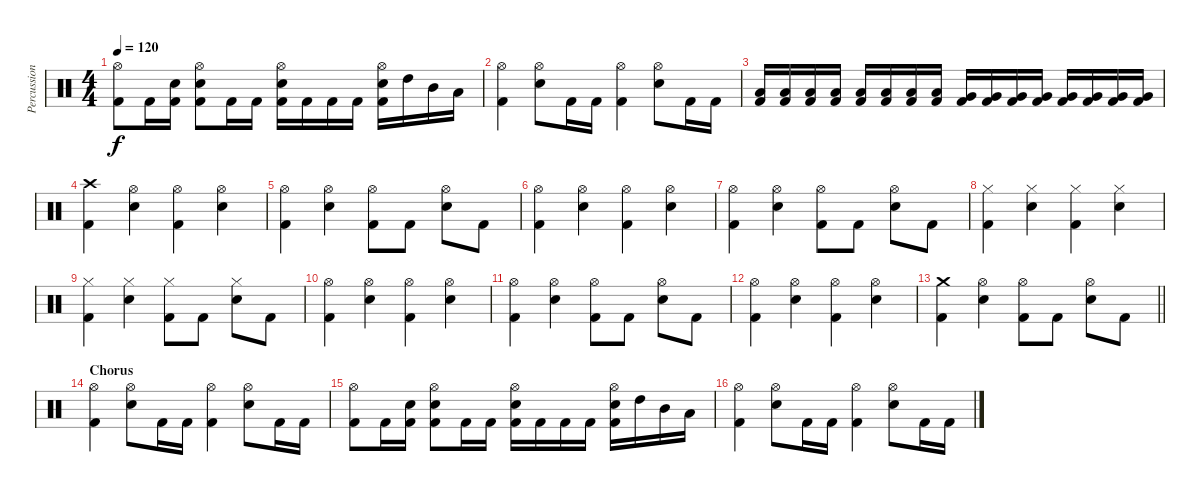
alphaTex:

\track ("Percussion" "Percussion") {instrument percussion}
\staff {score}
\articulation defaults
\ts (4 4)
\tempo 120
\clef neutral
\ks c
("Hi-Hat (open)" "Kick (hit) 2").8{dy f} "Kick (hit) 2".16 ("Kick (hit) 2" "Snare (hit)").16 ("Kick (hit) 2" "Electric Snare (hit)" "Hi-Hat (open)").8 "Kick (hit) 2".16 "Kick (hit) 2".16 ("Kick (hit) 2" "Electric Snare (hit)" "Hi-Hat (open)").16 "Kick (hit) 2".16 "Kick (hit) 2".16 "Kick (hit) 2".16 ("Kick (hit) 2" "Hi-Hat (open)" "Electric Snare (hit)").16 "High Tom (hit)".16 "Mid Tom (hit)".16 "Low Tom (hit)".16 |
("Hi-Hat (open)" "Kick (hit) 2").4 ("Hi-Hat (open)" "Electric Snare (hit)").8 "Kick (hit) 2".16 "Kick (hit) 2".16 ("Hi-Hat (open)" "Kick (hit) 2").4 ("Hi-Hat (open)" "Electric Snare (hit)").8 "Kick (hit) 2".16 "Kick (hit) 2".16 |
("Kick (hit) 2" "Low Tom (hit)").16 ("Kick (hit) 2" "Low Tom (hit)").16 ("Kick (hit) 2" "Low Tom (hit)").16 ("Kick (hit) 2" "Low Tom (hit)").16 ("Kick (hit) 2" "Low Tom (hit)").16 ("Kick (hit) 2" "Low Tom (hit)").16 ("Kick (hit) 2" "Low Tom (hit)").16 ("Kick (hit) 2" "Low Tom (hit)").16 ("Kick (hit) 2" "Very Low Tom (hit)").16 ("Kick (hit) 2" "Very Low Tom (hit)").16 ("Kick (hit) 2" "Very Low Tom (hit)").16 ("Kick (hit) 2" "Very Low Tom (hit)").16 ("Kick (hit) 2" "Very Low Tom (hit)").16 ("Kick (hit) 2" "Very Low Tom (hit)").16 ("Kick (hit) 2" "Very Low Tom (hit)").16 ("Kick (hit) 2" "Very Low Tom (hit)").16 |
("Crash high (hit)" "Kick (hit) 2").4 ("Hi-Hat (open)" "Electric Snare (hit)").4 ("Hi-Hat (open)" "Kick (hit) 2").4 ("Hi-Hat (open)" "Electric Snare (hit)").4 |
("Hi-Hat (open)" "Kick (hit) 2").4 ("Hi-Hat (open)" "Electric Snare (hit)").4 ("Hi-Hat (open)" "Kick (hit) 2").8 "Kick (hit) 2".8 ("Hi-Hat (open)" "Electric Snare (hit)").8 "Kick (hit) 2".8 |
("Hi-Hat (open)" "Kick (hit) 2").4 ("Hi-Hat (open)" "Electric Snare (hit)").4 ("Hi-Hat (open)" "Kick (hit) 2").4 ("Hi-Hat (open)" "Electric Snare (hit)").4 |
("Hi-Hat (open)" "Kick (hit) 2").4 ("Hi-Hat (open)" "Electric Snare (hit)").4 ("Hi-Hat (open)" "Kick (hit) 2").8 "Kick (hit) 2".8 ("Hi-Hat (open)" "Electric Snare (hit)").8 "Kick (hit) 2".8 |
("Hi-Hat (closed)" "Kick (hit) 2").4 ("Hi-Hat (closed)" "Electric Snare (hit)").4 ("Hi-Hat (closed)" "Kick (hit) 2").4 ("Hi-Hat (closed)" "Electric Snare (hit)").4 |
("Hi-Hat (closed)" "Kick (hit) 2").4 ("Hi-Hat (closed)" "Electric Snare (hit)").4 ("Hi-Hat (closed)" "Kick (hit) 2").8 "Kick (hit) 2".8 ("Hi-Hat (closed)" "Electric Snare (hit)").8 "Kick (hit) 2".8 |
("Hi-Hat (open)" "Kick (hit) 2").4 ("Hi-Hat (open)" "Electric Snare (hit)").4 ("Hi-Hat (open)" "Kick (hit) 2").4 ("Hi-Hat (open)" "Electric Snare (hit)").4 |
("Hi-Hat (open)" "Kick (hit) 2").4 ("Hi-Hat (open)" "Electric Snare (hit)").4 ("Hi-Hat (open)" "Kick (hit) 2").8 "Kick (hit) 2".8 ("Hi-Hat (open)" "Electric Snare (hit)").8 "Kick (hit) 2".8 |
("Hi-Hat (open)" "Kick (hit) 2").4 ("Hi-Hat (open)" "Electric Snare (hit)").4 ("Hi-Hat (open)" "Kick (hit) 2").4 ("Hi-Hat (open)" "Electric Snare (hit)").4 |
\barLineRight lightlight
("Crash medium (hit)" "Kick (hit) 2").4 ("Hi-Hat (open)" "Electric Snare (hit)").4 ("Hi-Hat (open)" "Kick (hit) 2").8 "Kick (hit) 2".8 ("Hi-Hat (open)" "Electric Snare (hit)").8 "Kick (hit) 2".8 |
\section ("" "Chorus")
("Hi-Hat (open)" "Kick (hit) 2").4 ("Hi-Hat (open)" "Electric Snare (hit)").8 "Kick (hit) 2".16 "Kick (hit) 2".16 ("Hi-Hat (open)" "Kick (hit) 2").4 ("Hi-Hat (open)" "Electric Snare (hit)").8 "Kick (hit) 2".16 "Kick (hit) 2".16 |
("Hi-Hat (open)" "Kick (hit) 2").8 "Kick (hit) 2".16 ("Kick (hit) 2" "Snare (hit)").16 ("Kick (hit) 2" "Electric Snare (hit)" "Hi-Hat (open)").8 "Kick (hit) 2".16 "Kick (hit) 2".16 ("Kick (hit) 2" "Electric Snare (hit)" "Hi-Hat (open)").16 "Kick (hit) 2".16 "Kick (hit) 2".16 "Kick (hit) 2".16 ("Kick (hit) 2" "Hi-Hat (open)" "Electric Snare (hit)").16 "High Tom (hit)".16 "Mid Tom (hit)".16 "Low Tom (hit)".16 |
("Hi-Hat (open)" "Kick (hit) 2").4 ("Hi-Hat (open)" "Electric Snare (hit)").8 "Kick (hit) 2".16 "Kick (hit) 2".16 ("Hi-Hat (open)" "Kick (hit) 2").4 ("Hi-Hat (open)" "Electric Snare (hit)").8 "Kick (hit) 2".16 "Kick (hit) 2".16
